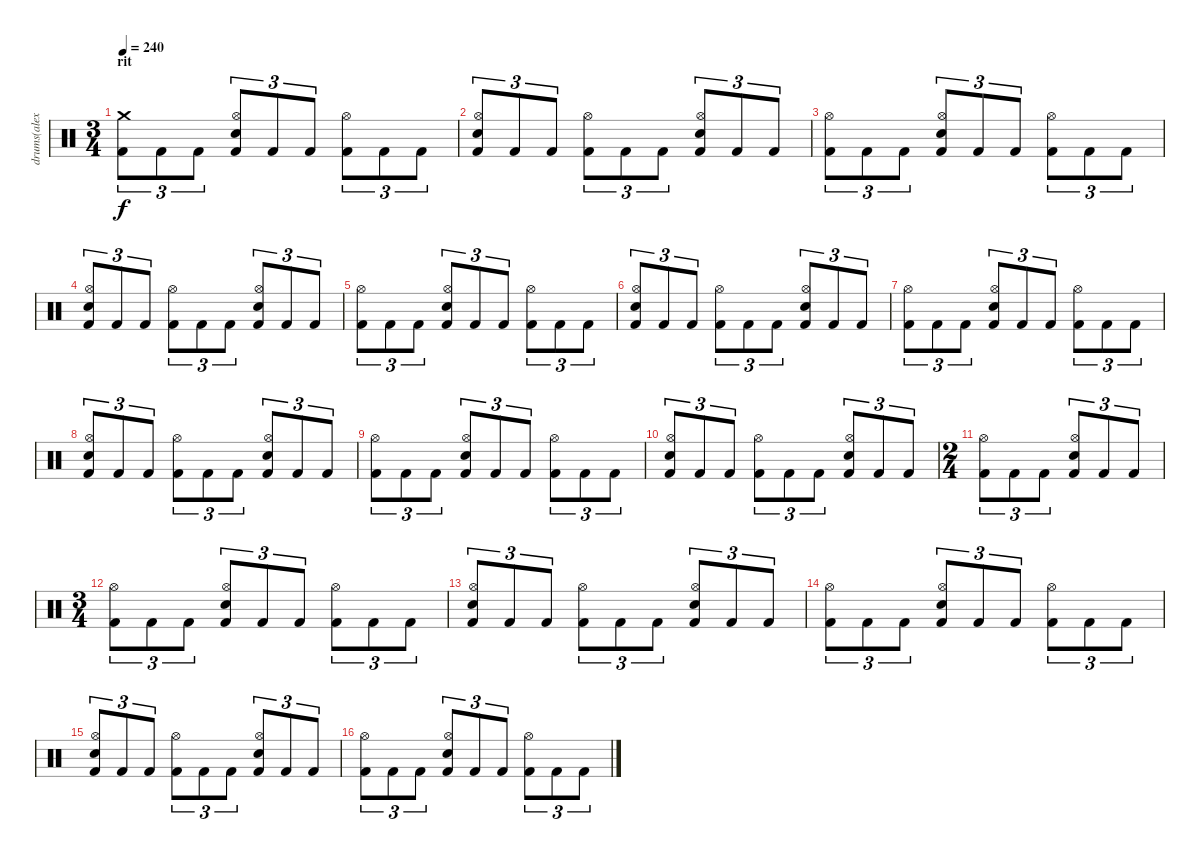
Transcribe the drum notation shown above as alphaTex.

\track ("drums(alex holzshwart)" "drums(alex") {instrument percussion}
\staff {score}
\articulation defaults
\ts (3 4)
\section ("" "rit")
\tempo 240
\clef neutral
\ks c
("Crash medium (hit)" "Kick (hit) 2").8{tu (3 2) dy f} "Kick (hit) 2".8{tu (3 2)} "Kick (hit) 2".8{tu (3 2)} ("Hi-Hat (open)" "Electric Snare (hit)" "Kick (hit) 2").8{tu (3 2)} "Kick (hit) 2".8{tu (3 2)} "Kick (hit) 2".8{tu (3 2)} ("Hi-Hat (open)" "Kick (hit) 2").8{tu (3 2)} "Kick (hit) 2".8{tu (3 2)} "Kick (hit) 2".8{tu (3 2)} |
("Hi-Hat (open)" "Electric Snare (hit)" "Kick (hit) 2").8{tu (3 2)} "Kick (hit) 2".8{tu (3 2)} "Kick (hit) 2".8{tu (3 2)} ("Hi-Hat (open)" "Kick (hit) 2").8{tu (3 2)} "Kick (hit) 2".8{tu (3 2)} "Kick (hit) 2".8{tu (3 2)} ("Hi-Hat (open)" "Electric Snare (hit)" "Kick (hit) 2").8{tu (3 2)} "Kick (hit) 2".8{tu (3 2)} "Kick (hit) 2".8{tu (3 2)} |
("Hi-Hat (open)" "Kick (hit) 2").8{tu (3 2)} "Kick (hit) 2".8{tu (3 2)} "Kick (hit) 2".8{tu (3 2)} ("Hi-Hat (open)" "Electric Snare (hit)" "Kick (hit) 2").8{tu (3 2)} "Kick (hit) 2".8{tu (3 2)} "Kick (hit) 2".8{tu (3 2)} ("Hi-Hat (open)" "Kick (hit) 2").8{tu (3 2)} "Kick (hit) 2".8{tu (3 2)} "Kick (hit) 2".8{tu (3 2)} |
("Hi-Hat (open)" "Electric Snare (hit)" "Kick (hit) 2").8{tu (3 2)} "Kick (hit) 2".8{tu (3 2)} "Kick (hit) 2".8{tu (3 2)} ("Hi-Hat (open)" "Kick (hit) 2").8{tu (3 2)} "Kick (hit) 2".8{tu (3 2)} "Kick (hit) 2".8{tu (3 2)} ("Hi-Hat (open)" "Electric Snare (hit)" "Kick (hit) 2").8{tu (3 2)} "Kick (hit) 2".8{tu (3 2)} "Kick (hit) 2".8{tu (3 2)} |
("Hi-Hat (open)" "Kick (hit) 2").8{tu (3 2)} "Kick (hit) 2".8{tu (3 2)} "Kick (hit) 2".8{tu (3 2)} ("Hi-Hat (open)" "Electric Snare (hit)" "Kick (hit) 2").8{tu (3 2)} "Kick (hit) 2".8{tu (3 2)} "Kick (hit) 2".8{tu (3 2)} ("Hi-Hat (open)" "Kick (hit) 2").8{tu (3 2)} "Kick (hit) 2".8{tu (3 2)} "Kick (hit) 2".8{tu (3 2)} |
("Hi-Hat (open)" "Electric Snare (hit)" "Kick (hit) 2").8{tu (3 2)} "Kick (hit) 2".8{tu (3 2)} "Kick (hit) 2".8{tu (3 2)} ("Hi-Hat (open)" "Kick (hit) 2").8{tu (3 2)} "Kick (hit) 2".8{tu (3 2)} "Kick (hit) 2".8{tu (3 2)} ("Hi-Hat (open)" "Electric Snare (hit)" "Kick (hit) 2").8{tu (3 2)} "Kick (hit) 2".8{tu (3 2)} "Kick (hit) 2".8{tu (3 2)} |
("Hi-Hat (open)" "Kick (hit) 2").8{tu (3 2)} "Kick (hit) 2".8{tu (3 2)} "Kick (hit) 2".8{tu (3 2)} ("Hi-Hat (open)" "Electric Snare (hit)" "Kick (hit) 2").8{tu (3 2)} "Kick (hit) 2".8{tu (3 2)} "Kick (hit) 2".8{tu (3 2)} ("Hi-Hat (open)" "Kick (hit) 2").8{tu (3 2)} "Kick (hit) 2".8{tu (3 2)} "Kick (hit) 2".8{tu (3 2)} |
("Hi-Hat (open)" "Electric Snare (hit)" "Kick (hit) 2").8{tu (3 2)} "Kick (hit) 2".8{tu (3 2)} "Kick (hit) 2".8{tu (3 2)} ("Hi-Hat (open)" "Kick (hit) 2").8{tu (3 2)} "Kick (hit) 2".8{tu (3 2)} "Kick (hit) 2".8{tu (3 2)} ("Hi-Hat (open)" "Electric Snare (hit)" "Kick (hit) 2").8{tu (3 2)} "Kick (hit) 2".8{tu (3 2)} "Kick (hit) 2".8{tu (3 2)} |
("Hi-Hat (open)" "Kick (hit) 2").8{tu (3 2)} "Kick (hit) 2".8{tu (3 2)} "Kick (hit) 2".8{tu (3 2)} ("Hi-Hat (open)" "Electric Snare (hit)" "Kick (hit) 2").8{tu (3 2)} "Kick (hit) 2".8{tu (3 2)} "Kick (hit) 2".8{tu (3 2)} ("Hi-Hat (open)" "Kick (hit) 2").8{tu (3 2)} "Kick (hit) 2".8{tu (3 2)} "Kick (hit) 2".8{tu (3 2)} |
("Hi-Hat (open)" "Electric Snare (hit)" "Kick (hit) 2").8{tu (3 2)} "Kick (hit) 2".8{tu (3 2)} "Kick (hit) 2".8{tu (3 2)} ("Hi-Hat (open)" "Kick (hit) 2").8{tu (3 2)} "Kick (hit) 2".8{tu (3 2)} "Kick (hit) 2".8{tu (3 2)} ("Hi-Hat (open)" "Electric Snare (hit)" "Kick (hit) 2").8{tu (3 2)} "Kick (hit) 2".8{tu (3 2)} "Kick (hit) 2".8{tu (3 2)} |
\ts (2 4)
("Hi-Hat (open)" "Kick (hit) 2").8{tu (3 2)} "Kick (hit) 2".8{tu (3 2)} "Kick (hit) 2".8{tu (3 2)} ("Hi-Hat (open)" "Electric Snare (hit)" "Kick (hit) 2").8{tu (3 2)} "Kick (hit) 2".8{tu (3 2)} "Kick (hit) 2".8{tu (3 2)} |
\ts (3 4)
("Hi-Hat (open)" "Kick (hit) 2").8{tu (3 2)} "Kick (hit) 2".8{tu (3 2)} "Kick (hit) 2".8{tu (3 2)} ("Hi-Hat (open)" "Electric Snare (hit)" "Kick (hit) 2").8{tu (3 2)} "Kick (hit) 2".8{tu (3 2)} "Kick (hit) 2".8{tu (3 2)} ("Hi-Hat (open)" "Kick (hit) 2").8{tu (3 2)} "Kick (hit) 2".8{tu (3 2)} "Kick (hit) 2".8{tu (3 2)} |
("Hi-Hat (open)" "Electric Snare (hit)" "Kick (hit) 2").8{tu (3 2)} "Kick (hit) 2".8{tu (3 2)} "Kick (hit) 2".8{tu (3 2)} ("Hi-Hat (open)" "Kick (hit) 2").8{tu (3 2)} "Kick (hit) 2".8{tu (3 2)} "Kick (hit) 2".8{tu (3 2)} ("Hi-Hat (open)" "Electric Snare (hit)" "Kick (hit) 2").8{tu (3 2)} "Kick (hit) 2".8{tu (3 2)} "Kick (hit) 2".8{tu (3 2)} |
("Hi-Hat (open)" "Kick (hit) 2").8{tu (3 2)} "Kick (hit) 2".8{tu (3 2)} "Kick (hit) 2".8{tu (3 2)} ("Hi-Hat (open)" "Electric Snare (hit)" "Kick (hit) 2").8{tu (3 2)} "Kick (hit) 2".8{tu (3 2)} "Kick (hit) 2".8{tu (3 2)} ("Hi-Hat (open)" "Kick (hit) 2").8{tu (3 2)} "Kick (hit) 2".8{tu (3 2)} "Kick (hit) 2".8{tu (3 2)} |
("Hi-Hat (open)" "Electric Snare (hit)" "Kick (hit) 2").8{tu (3 2)} "Kick (hit) 2".8{tu (3 2)} "Kick (hit) 2".8{tu (3 2)} ("Hi-Hat (open)" "Kick (hit) 2").8{tu (3 2)} "Kick (hit) 2".8{tu (3 2)} "Kick (hit) 2".8{tu (3 2)} ("Hi-Hat (open)" "Electric Snare (hit)" "Kick (hit) 2").8{tu (3 2)} "Kick (hit) 2".8{tu (3 2)} "Kick (hit) 2".8{tu (3 2)} |
("Hi-Hat (open)" "Kick (hit) 2").8{tu (3 2)} "Kick (hit) 2".8{tu (3 2)} "Kick (hit) 2".8{tu (3 2)} ("Hi-Hat (open)" "Electric Snare (hit)" "Kick (hit) 2").8{tu (3 2)} "Kick (hit) 2".8{tu (3 2)} "Kick (hit) 2".8{tu (3 2)} ("Hi-Hat (open)" "Kick (hit) 2").8{tu (3 2)} "Kick (hit) 2".8{tu (3 2)} "Kick (hit) 2".8{tu (3 2)}
